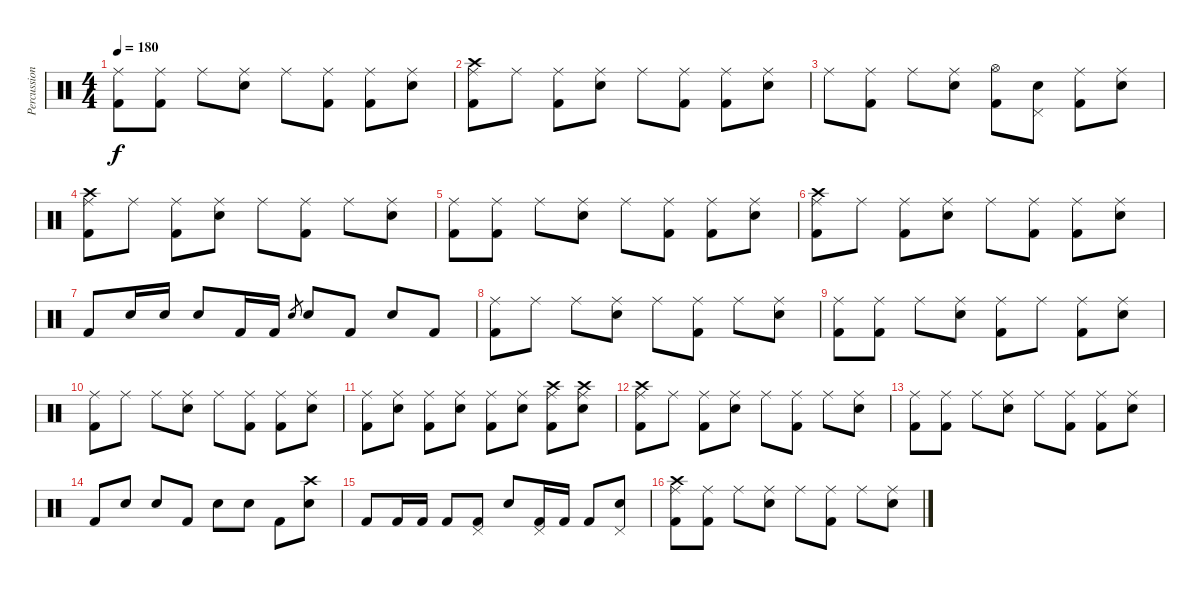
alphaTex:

\track ("Percussion" "Percussion") {instrument percussion}
\staff {score}
\articulation defaults
\ts (4 4)
\tempo 180
\clef neutral
\ks c
("Ride (middle)" "Kick (hit) 2").8{dy f} ("Ride (middle)" "Kick (hit) 2").8 "Ride (middle)".8 ("Ride (middle)" "Electric Snare (hit)").8 "Ride (middle)".8 ("Ride (middle)" "Kick (hit) 2").8 ("Ride (middle)" "Kick (hit) 2").8 ("Ride (middle)" "Electric Snare (hit)").8 |
("Ride (middle)" "Crash high (hit)" "Kick (hit) 2").8 "Ride (middle)".8 ("Ride (middle)" "Kick (hit) 2").8 ("Ride (middle)" "Electric Snare (hit)").8 "Ride (middle)".8 ("Ride (middle)" "Kick (hit) 2").8 ("Ride (middle)" "Kick (hit) 2").8 ("Ride (middle)" "Electric Snare (hit)").8 |
"Ride (middle)".8 ("Ride (middle)" "Kick (hit) 2").8 "Ride (middle)".8 ("Ride (middle)" "Electric Snare (hit)").8 ("Hi-Hat (open)" "Kick (hit) 2").8 ("Pedal Hi-Hat (hit)" "Electric Snare (hit)").8 ("Ride (middle)" "Kick (hit) 2").8 ("Ride (middle)" "Electric Snare (hit)").8 |
("Ride (middle)" "Crash high (hit)" "Kick (hit) 2").8 "Ride (middle)".8 ("Ride (middle)" "Kick (hit) 2").8 ("Ride (middle)" "Electric Snare (hit)").8 "Ride (middle)".8 ("Ride (middle)" "Kick (hit) 2").8 "Ride (middle)".8 ("Ride (middle)" "Electric Snare (hit)").8 |
("Ride (middle)" "Kick (hit) 2").8 ("Ride (middle)" "Kick (hit) 2").8 "Ride (middle)".8 ("Ride (middle)" "Electric Snare (hit)").8 "Ride (middle)".8 ("Ride (middle)" "Kick (hit) 2").8 ("Ride (middle)" "Kick (hit) 2").8 ("Ride (middle)" "Electric Snare (hit)").8 |
("Ride (middle)" "Crash high (hit)" "Kick (hit) 2").8 "Ride (middle)".8 ("Ride (middle)" "Kick (hit) 2").8 ("Ride (middle)" "Electric Snare (hit)").8 "Ride (middle)".8 ("Ride (middle)" "Kick (hit) 2").8 ("Ride (middle)" "Kick (hit) 2").8 ("Ride (middle)" "Electric Snare (hit)").8 |
"Kick (hit) 2".8 "Electric Snare (hit)".16 "Electric Snare (hit)".16 "Electric Snare (hit)".8 "Kick (hit) 2".16 "Kick (hit) 2".16 "Electric Snare (hit)".8{gr} "Electric Snare (hit)".8 "Kick (hit) 2".8 "Electric Snare (hit)".8 "Kick (hit) 2".8 |
("Ride (middle)" "Kick (hit) 2").8 "Ride (middle)".8 "Ride (middle)".8 ("Ride (middle)" "Electric Snare (hit)").8 "Ride (middle)".8 ("Ride (middle)" "Kick (hit) 2").8 "Ride (middle)".8 ("Ride (middle)" "Electric Snare (hit)").8 |
("Ride (middle)" "Kick (hit) 2").8 ("Ride (middle)" "Kick (hit) 2").8 "Ride (middle)".8 ("Ride (middle)" "Electric Snare (hit)").8 ("Ride (middle)" "Kick (hit) 2").8 "Ride (middle)".8 ("Ride (middle)" "Kick (hit) 2").8 ("Ride (middle)" "Electric Snare (hit)").8 |
("Ride (middle)" "Kick (hit) 2").8 "Ride (middle)".8 "Ride (middle)".8 ("Ride (middle)" "Electric Snare (hit)").8 "Ride (middle)".8 ("Ride (middle)" "Kick (hit) 2").8 ("Ride (middle)" "Kick (hit) 2").8 ("Ride (middle)" "Electric Snare (hit)").8 |
("Ride (middle)" "Kick (hit) 2").8 ("Ride (middle)" "Electric Snare (hit)").8 ("Ride (middle)" "Kick (hit) 2").8 ("Ride (middle)" "Electric Snare (hit)").8 ("Ride (middle)" "Kick (hit) 2").8 ("Ride (middle)" "Electric Snare (hit)").8 ("Ride (middle)" "Crash high (hit)" "Kick (hit) 2").8 ("Ride (middle)" "Crash high (hit)" "Electric Snare (hit)").8 |
("Ride (middle)" "Crash high (hit)" "Kick (hit) 2").8 "Ride (middle)".8 ("Ride (middle)" "Kick (hit) 2").8 ("Ride (middle)" "Electric Snare (hit)").8 "Ride (middle)".8 ("Ride (middle)" "Kick (hit) 2").8 "Ride (middle)".8 ("Ride (middle)" "Electric Snare (hit)").8 |
("Ride (middle)" "Kick (hit) 2").8 ("Ride (middle)" "Kick (hit) 2").8 "Ride (middle)".8 ("Ride (middle)" "Electric Snare (hit)").8 "Ride (middle)".8 ("Ride (middle)" "Kick (hit) 2").8 ("Ride (middle)" "Kick (hit) 2").8 ("Ride (middle)" "Electric Snare (hit)").8 |
"Kick (hit) 2".8 "Electric Snare (hit)".8 "Electric Snare (hit)".8 "Kick (hit) 2".8 "Electric Snare (hit)".8 "Electric Snare (hit)".8 "Kick (hit) 2".8 ("Crash high (hit)" "Electric Snare (hit)").8 |
"Kick (hit) 2".8 "Kick (hit) 2".16 "Kick (hit) 2".16 "Kick (hit) 2".8 ("Pedal Hi-Hat (hit)" "Kick (hit) 2").8 "Electric Snare (hit)".8 ("Pedal Hi-Hat (hit)" "Kick (hit) 2").16 "Kick (hit) 2".16 "Kick (hit) 2".8 ("Pedal Hi-Hat (hit)" "Electric Snare (hit)").8 |
("Ride (middle)" "Crash high (hit)" "Kick (hit) 2").8 ("Ride (middle)" "Kick (hit) 2").8 "Ride (middle)".8 ("Ride (middle)" "Electric Snare (hit)").8 "Ride (middle)".8 ("Ride (middle)" "Kick (hit) 2").8 "Ride (middle)".8 ("Ride (middle)" "Electric Snare (hit)").8
